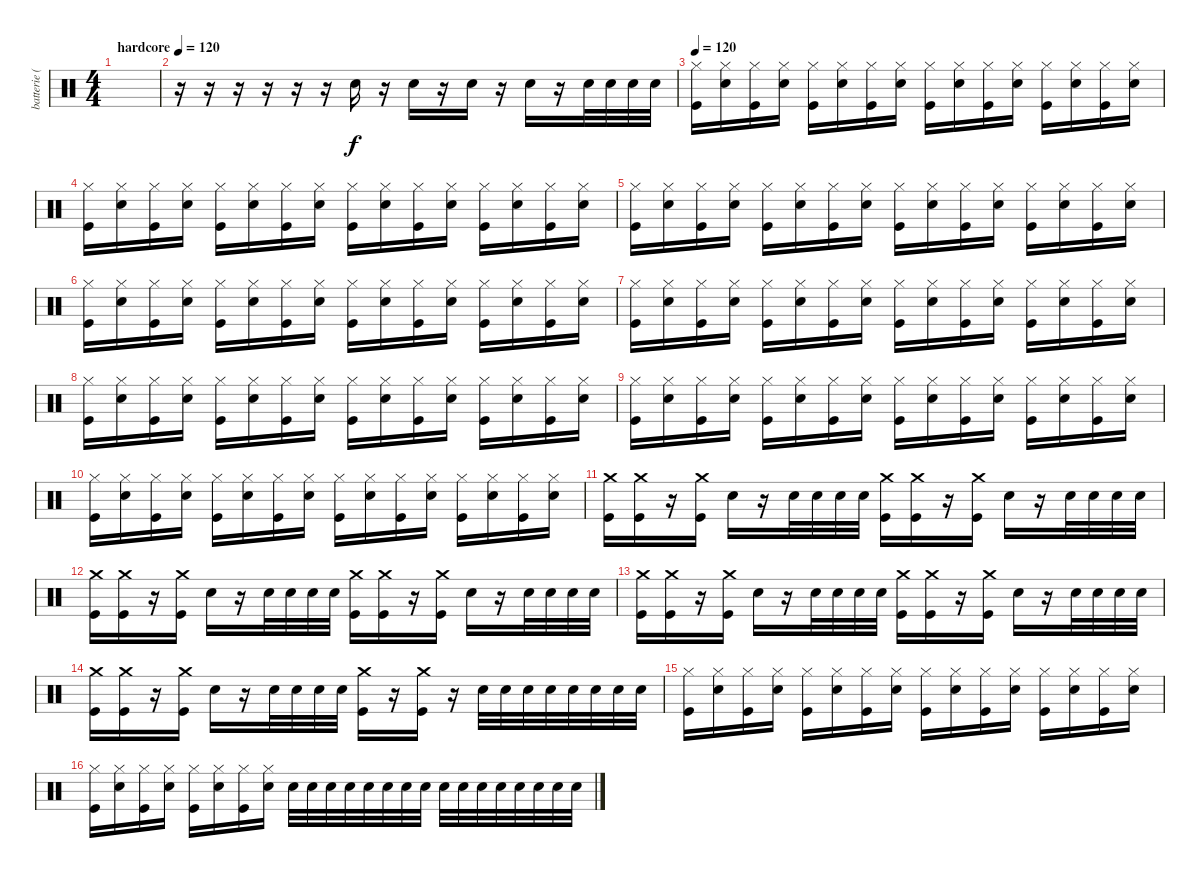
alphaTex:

\track ("batterie ( Jeff Nelson ) " "batterie (") {instrument percussion}
\staff {score}
\articulation defaults
\ts (4 4)
\tempo (120 "hardcore")
\tempo 112
\tempo (120 "hardcore")
\clef neutral
\ks c
|
r.16 r.16 r.16 r.16 r.16 r.16 "Snare (hit) 2".16 r.16 "Snare (hit) 2".16 r.16 "Snare (hit) 2".16 r.16 "Snare (hit) 2".16 r.16 "Snare (hit) 2".32 "Snare (hit) 2".32 "Snare (hit) 2".32 "Snare (hit) 2".32 |
\tempo 120
("Hi-Hat (closed)" "Kick (hit)").16 ("Hi-Hat (closed)" "Snare (hit) 2").16 ("Hi-Hat (closed)" "Kick (hit)").16 ("Hi-Hat (closed)" "Snare (hit) 2").16 ("Hi-Hat (closed)" "Kick (hit)").16 ("Hi-Hat (closed)" "Snare (hit) 2").16 ("Hi-Hat (closed)" "Kick (hit)").16 ("Hi-Hat (closed)" "Snare (hit) 2").16 ("Hi-Hat (closed)" "Kick (hit)").16 ("Hi-Hat (closed)" "Snare (hit) 2").16 ("Hi-Hat (closed)" "Kick (hit)").16 ("Hi-Hat (closed)" "Snare (hit) 2").16 ("Hi-Hat (closed)" "Kick (hit)").16 ("Hi-Hat (closed)" "Snare (hit) 2").16 ("Hi-Hat (closed)" "Kick (hit)").16 ("Hi-Hat (closed)" "Snare (hit) 2").16 |
("Hi-Hat (closed)" "Kick (hit)").16 ("Hi-Hat (closed)" "Snare (hit) 2").16 ("Hi-Hat (closed)" "Kick (hit)").16 ("Hi-Hat (closed)" "Snare (hit) 2").16 ("Hi-Hat (closed)" "Kick (hit)").16 ("Hi-Hat (closed)" "Snare (hit) 2").16 ("Hi-Hat (closed)" "Kick (hit)").16 ("Hi-Hat (closed)" "Snare (hit) 2").16 ("Hi-Hat (closed)" "Kick (hit)").16 ("Hi-Hat (closed)" "Snare (hit) 2").16 ("Hi-Hat (closed)" "Kick (hit)").16 ("Hi-Hat (closed)" "Snare (hit) 2").16 ("Hi-Hat (closed)" "Kick (hit)").16 ("Hi-Hat (closed)" "Snare (hit) 2").16 ("Hi-Hat (closed)" "Kick (hit)").16 ("Hi-Hat (closed)" "Snare (hit) 2").16 |
("Hi-Hat (closed)" "Kick (hit)").16 ("Hi-Hat (closed)" "Snare (hit) 2").16 ("Hi-Hat (closed)" "Kick (hit)").16 ("Hi-Hat (closed)" "Snare (hit) 2").16 ("Hi-Hat (closed)" "Kick (hit)").16 ("Hi-Hat (closed)" "Snare (hit) 2").16 ("Hi-Hat (closed)" "Kick (hit)").16 ("Hi-Hat (closed)" "Snare (hit) 2").16 ("Hi-Hat (closed)" "Kick (hit)").16 ("Hi-Hat (closed)" "Snare (hit) 2").16 ("Hi-Hat (closed)" "Kick (hit)").16 ("Hi-Hat (closed)" "Snare (hit) 2").16 ("Hi-Hat (closed)" "Kick (hit)").16 ("Hi-Hat (closed)" "Snare (hit) 2").16 ("Hi-Hat (closed)" "Kick (hit)").16 ("Hi-Hat (closed)" "Snare (hit) 2").16 |
("Hi-Hat (closed)" "Kick (hit)").16 ("Hi-Hat (closed)" "Snare (hit) 2").16 ("Hi-Hat (closed)" "Kick (hit)").16 ("Hi-Hat (closed)" "Snare (hit) 2").16 ("Hi-Hat (closed)" "Kick (hit)").16 ("Hi-Hat (closed)" "Snare (hit) 2").16 ("Hi-Hat (closed)" "Kick (hit)").16 ("Hi-Hat (closed)" "Snare (hit) 2").16 ("Hi-Hat (closed)" "Kick (hit)").16 ("Hi-Hat (closed)" "Snare (hit) 2").16 ("Hi-Hat (closed)" "Kick (hit)").16 ("Hi-Hat (closed)" "Snare (hit) 2").16 ("Hi-Hat (closed)" "Kick (hit)").16 ("Hi-Hat (closed)" "Snare (hit) 2").16 ("Hi-Hat (closed)" "Kick (hit)").16 ("Hi-Hat (closed)" "Snare (hit) 2").16 |
("Hi-Hat (closed)" "Kick (hit)").16 ("Hi-Hat (closed)" "Snare (hit) 2").16 ("Hi-Hat (closed)" "Kick (hit)").16 ("Hi-Hat (closed)" "Snare (hit) 2").16 ("Hi-Hat (closed)" "Kick (hit)").16 ("Hi-Hat (closed)" "Snare (hit) 2").16 ("Hi-Hat (closed)" "Kick (hit)").16 ("Hi-Hat (closed)" "Snare (hit) 2").16 ("Hi-Hat (closed)" "Kick (hit)").16 ("Hi-Hat (closed)" "Snare (hit) 2").16 ("Hi-Hat (closed)" "Kick (hit)").16 ("Hi-Hat (closed)" "Snare (hit) 2").16 ("Hi-Hat (closed)" "Kick (hit)").16 ("Hi-Hat (closed)" "Snare (hit) 2").16 ("Hi-Hat (closed)" "Kick (hit)").16 ("Hi-Hat (closed)" "Snare (hit) 2").16 |
("Hi-Hat (closed)" "Kick (hit)").16 ("Hi-Hat (closed)" "Snare (hit) 2").16 ("Hi-Hat (closed)" "Kick (hit)").16 ("Hi-Hat (closed)" "Snare (hit) 2").16 ("Hi-Hat (closed)" "Kick (hit)").16 ("Hi-Hat (closed)" "Snare (hit) 2").16 ("Hi-Hat (closed)" "Kick (hit)").16 ("Hi-Hat (closed)" "Snare (hit) 2").16 ("Hi-Hat (closed)" "Kick (hit)").16 ("Hi-Hat (closed)" "Snare (hit) 2").16 ("Hi-Hat (closed)" "Kick (hit)").16 ("Hi-Hat (closed)" "Snare (hit) 2").16 ("Hi-Hat (closed)" "Kick (hit)").16 ("Hi-Hat (closed)" "Snare (hit) 2").16 ("Hi-Hat (closed)" "Kick (hit)").16 ("Hi-Hat (closed)" "Snare (hit) 2").16 |
("Hi-Hat (closed)" "Kick (hit)").16 ("Hi-Hat (closed)" "Snare (hit) 2").16 ("Hi-Hat (closed)" "Kick (hit)").16 ("Hi-Hat (closed)" "Snare (hit) 2").16 ("Hi-Hat (closed)" "Kick (hit)").16 ("Hi-Hat (closed)" "Snare (hit) 2").16 ("Hi-Hat (closed)" "Kick (hit)").16 ("Hi-Hat (closed)" "Snare (hit) 2").16 ("Hi-Hat (closed)" "Kick (hit)").16 ("Hi-Hat (closed)" "Snare (hit) 2").16 ("Hi-Hat (closed)" "Kick (hit)").16 ("Hi-Hat (closed)" "Snare (hit) 2").16 ("Hi-Hat (closed)" "Kick (hit)").16 ("Hi-Hat (closed)" "Snare (hit) 2").16 ("Hi-Hat (closed)" "Kick (hit)").16 ("Hi-Hat (closed)" "Snare (hit) 2").16 |
("Hi-Hat (closed)" "Kick (hit)").16 ("Hi-Hat (closed)" "Snare (hit) 2").16 ("Hi-Hat (closed)" "Kick (hit)").16 ("Hi-Hat (closed)" "Snare (hit) 2").16 ("Hi-Hat (closed)" "Kick (hit)").16 ("Hi-Hat (closed)" "Snare (hit) 2").16 ("Hi-Hat (closed)" "Kick (hit)").16 ("Hi-Hat (closed)" "Snare (hit) 2").16 ("Hi-Hat (closed)" "Kick (hit)").16 ("Hi-Hat (closed)" "Snare (hit) 2").16 ("Hi-Hat (closed)" "Kick (hit)").16 ("Hi-Hat (closed)" "Snare (hit) 2").16 ("Hi-Hat (closed)" "Kick (hit)").16 ("Hi-Hat (closed)" "Snare (hit) 2").16 ("Hi-Hat (closed)" "Kick (hit)").16 ("Hi-Hat (closed)" "Snare (hit) 2").16 |
("Crash medium (hit)" "Kick (hit)").16 ("Crash medium (hit)" "Kick (hit)").16 r.16 ("Crash medium (hit)" "Kick (hit)").16 "Snare (hit) 2".16 r.16 "Snare (hit) 2".32 "Snare (hit) 2".32 "Snare (hit) 2".32 "Snare (hit) 2".32 ("Crash medium (hit)" "Kick (hit)").16 ("Crash medium (hit)" "Kick (hit)").16 r.16 ("Crash medium (hit)" "Kick (hit)").16 "Snare (hit) 2".16 r.16 "Snare (hit) 2".32 "Snare (hit) 2".32 "Snare (hit) 2".32 "Snare (hit) 2".32 |
("Crash medium (hit)" "Kick (hit)").16 ("Crash medium (hit)" "Kick (hit)").16 r.16 ("Crash medium (hit)" "Kick (hit)").16 "Snare (hit) 2".16 r.16 "Snare (hit) 2".32 "Snare (hit) 2".32 "Snare (hit) 2".32 "Snare (hit) 2".32 ("Crash medium (hit)" "Kick (hit)").16 ("Crash medium (hit)" "Kick (hit)").16 r.16 ("Crash medium (hit)" "Kick (hit)").16 "Snare (hit) 2".16 r.16 "Snare (hit) 2".32 "Snare (hit) 2".32 "Snare (hit) 2".32 "Snare (hit) 2".32 |
("Crash medium (hit)" "Kick (hit)").16 ("Crash medium (hit)" "Kick (hit)").16 r.16 ("Crash medium (hit)" "Kick (hit)").16 "Snare (hit) 2".16 r.16 "Snare (hit) 2".32 "Snare (hit) 2".32 "Snare (hit) 2".32 "Snare (hit) 2".32 ("Crash medium (hit)" "Kick (hit)").16 ("Crash medium (hit)" "Kick (hit)").16 r.16 ("Crash medium (hit)" "Kick (hit)").16 "Snare (hit) 2".16 r.16 "Snare (hit) 2".32 "Snare (hit) 2".32 "Snare (hit) 2".32 "Snare (hit) 2".32 |
("Crash medium (hit)" "Kick (hit)").16 ("Crash medium (hit)" "Kick (hit)").16 r.16 ("Crash medium (hit)" "Kick (hit)").16 "Snare (hit) 2".16 r.16 "Snare (hit) 2".32 "Snare (hit) 2".32 "Snare (hit) 2".32 "Snare (hit) 2".32 ("Crash medium (hit)" "Kick (hit)").16 r.16 ("Crash medium (hit)" "Kick (hit)").16 r.16 "Snare (hit) 2".32 "Snare (hit) 2".32 "Snare (hit) 2".32 "Snare (hit) 2".32 "Snare (hit) 2".32 "Snare (hit) 2".32 "Snare (hit) 2".32 "Snare (hit) 2".32 |
("Hi-Hat (closed)" "Kick (hit)").16 ("Hi-Hat (closed)" "Snare (hit) 2").16 ("Hi-Hat (closed)" "Kick (hit)").16 ("Hi-Hat (closed)" "Snare (hit) 2").16 ("Hi-Hat (closed)" "Kick (hit)").16 ("Hi-Hat (closed)" "Snare (hit) 2").16 ("Hi-Hat (closed)" "Kick (hit)").16 ("Hi-Hat (closed)" "Snare (hit) 2").16 ("Hi-Hat (closed)" "Kick (hit)").16 ("Hi-Hat (closed)" "Snare (hit) 2").16 ("Hi-Hat (closed)" "Kick (hit)").16 ("Hi-Hat (closed)" "Snare (hit) 2").16 ("Hi-Hat (closed)" "Kick (hit)").16 ("Hi-Hat (closed)" "Snare (hit) 2").16 ("Hi-Hat (closed)" "Kick (hit)").16 ("Hi-Hat (closed)" "Snare (hit) 2").16 |
("Hi-Hat (closed)" "Kick (hit)").16 ("Hi-Hat (closed)" "Snare (hit) 2").16 ("Hi-Hat (closed)" "Kick (hit)").16 ("Hi-Hat (closed)" "Snare (hit) 2").16 ("Hi-Hat (closed)" "Kick (hit)").16 ("Hi-Hat (closed)" "Snare (hit) 2").16 ("Hi-Hat (closed)" "Kick (hit)").16 ("Hi-Hat (closed)" "Snare (hit) 2").16 "Snare (hit) 2".32 "Snare (hit) 2".32 "Snare (hit) 2".32 "Snare (hit) 2".32 "Snare (hit) 2".32 "Snare (hit) 2".32 "Snare (hit) 2".32 "Snare (hit) 2".32 "Snare (hit) 2".32 "Snare (hit) 2".32 "Snare (hit) 2".32 "Snare (hit) 2".32 "Snare (hit) 2".32 "Snare (hit) 2".32 "Snare (hit) 2".32 "Snare (hit) 2".32
